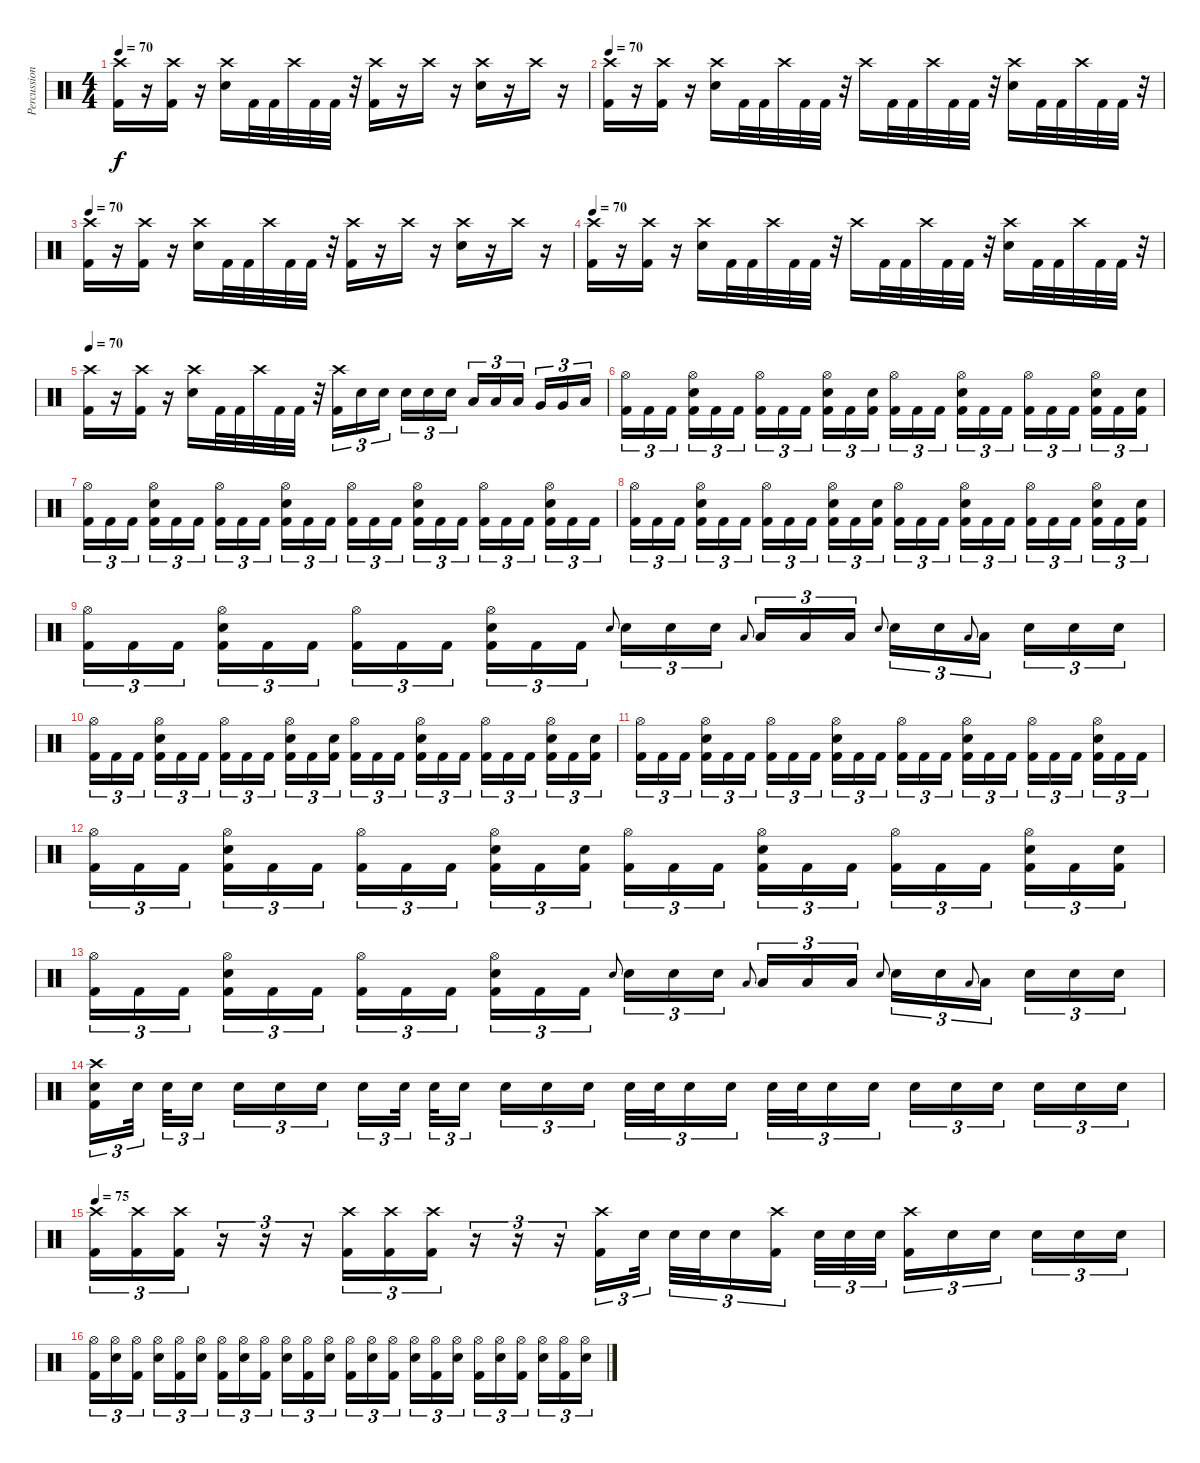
\track ("Percussion" "Percussion") {instrument percussion}
\staff {score}
\articulation defaults
\ts (4 4)
\tempo 70
\clef neutral
\ks c
("Crash high (hit)" "Kick (hit) 2").16{dy f} r.16 ("Crash high (hit)" "Kick (hit) 2").16 r.16 ("Crash high (hit)" "Electric Snare (hit)").16 "Kick (hit) 2".32 "Kick (hit) 2".32 "Crash high (hit)".32 "Kick (hit) 2".32 "Kick (hit) 2".32 r.32 ("Crash high (hit)" "Kick (hit) 2").16 r.16 "Crash high (hit)".16 r.16 ("Crash high (hit)" "Electric Snare (hit)").16 r.16 "Crash high (hit)".16 r.16 |
\tempo 70
("Crash high (hit)" "Kick (hit) 2").16 r.16 ("Crash high (hit)" "Kick (hit) 2").16 r.16 ("Crash high (hit)" "Electric Snare (hit)").16 "Kick (hit) 2".32 "Kick (hit) 2".32 "Crash high (hit)".32 "Kick (hit) 2".32 "Kick (hit) 2".32 r.32 "Crash high (hit)".16 "Kick (hit) 2".32 "Kick (hit) 2".32 "Crash high (hit)".32 "Kick (hit) 2".32 "Kick (hit) 2".32 r.32 ("Crash high (hit)" "Electric Snare (hit)").16 "Kick (hit) 2".32 "Kick (hit) 2".32 "Crash high (hit)".32 "Kick (hit) 2".32 "Kick (hit) 2".32 r.32 |
\tempo 70
("Crash high (hit)" "Kick (hit) 2").16 r.16 ("Crash high (hit)" "Kick (hit) 2").16 r.16 ("Crash high (hit)" "Electric Snare (hit)").16 "Kick (hit) 2".32 "Kick (hit) 2".32 "Crash high (hit)".32 "Kick (hit) 2".32 "Kick (hit) 2".32 r.32 ("Crash high (hit)" "Kick (hit) 2").16 r.16 "Crash high (hit)".16 r.16 ("Crash high (hit)" "Electric Snare (hit)").16 r.16 "Crash high (hit)".16 r.16 |
\tempo 70
("Crash high (hit)" "Kick (hit) 2").16 r.16 ("Crash high (hit)" "Kick (hit) 2").16 r.16 ("Crash high (hit)" "Electric Snare (hit)").16 "Kick (hit) 2".32 "Kick (hit) 2".32 "Crash high (hit)".32 "Kick (hit) 2".32 "Kick (hit) 2".32 r.32 "Crash high (hit)".16 "Kick (hit) 2".32 "Kick (hit) 2".32 "Crash high (hit)".32 "Kick (hit) 2".32 "Kick (hit) 2".32 r.32 ("Crash high (hit)" "Electric Snare (hit)").16 "Kick (hit) 2".32 "Kick (hit) 2".32 "Crash high (hit)".32 "Kick (hit) 2".32 "Kick (hit) 2".32 r.32 |
\tempo 70
("Crash high (hit)" "Kick (hit) 2").16 r.16 ("Crash high (hit)" "Kick (hit) 2").16 r.16 ("Crash high (hit)" "Electric Snare (hit)").16 "Kick (hit) 2".32 "Kick (hit) 2".32 "Crash high (hit)".32 "Kick (hit) 2".32 "Kick (hit) 2".32 r.32 ("Crash high (hit)" "Kick (hit) 2").16{tu (3 2)} "Electric Snare (hit)".16{tu (3 2)} "Electric Snare (hit)".16{tu (3 2) beam splitsecondary} "Electric Snare (hit)".16{tu (3 2)} "Electric Snare (hit)".16{tu (3 2)} "Electric Snare (hit)".16{tu (3 2)} "Low Tom (hit)".16{tu (3 2)} "Low Tom (hit)".16{tu (3 2)} "Low Tom (hit)".16{tu (3 2) beam splitsecondary} "Very Low Tom (hit)".16{tu (3 2)} "Very Low Tom (hit)".16{tu (3 2)} "Low Floor Tom (hit)".16{tu (3 2)} |
("Hi-Hat (open)" "Kick (hit) 2").16{tu (3 2)} "Kick (hit) 2".16{tu (3 2)} "Kick (hit) 2".16{tu (3 2) beam splitsecondary} ("Hi-Hat (open)" "Electric Snare (hit)" "Kick (hit) 2").16{tu (3 2)} "Kick (hit) 2".16{tu (3 2)} "Kick (hit) 2".16{tu (3 2)} ("Hi-Hat (open)" "Kick (hit) 2").16{tu (3 2)} "Kick (hit) 2".16{tu (3 2)} "Kick (hit) 2".16{tu (3 2) beam splitsecondary} ("Hi-Hat (open)" "Electric Snare (hit)" "Kick (hit) 2").16{tu (3 2)} "Kick (hit) 2".16{tu (3 2)} ("Electric Snare (hit)" "Kick (hit) 2").16{tu (3 2)} ("Hi-Hat (open)" "Kick (hit) 2").16{tu (3 2)} "Kick (hit) 2".16{tu (3 2)} "Kick (hit) 2".16{tu (3 2) beam splitsecondary} ("Hi-Hat (open)" "Electric Snare (hit)" "Kick (hit) 2").16{tu (3 2)} "Kick (hit) 2".16{tu (3 2)} "Kick (hit) 2".16{tu (3 2)} ("Hi-Hat (open)" "Kick (hit) 2").16{tu (3 2)} "Kick (hit) 2".16{tu (3 2)} "Kick (hit) 2".16{tu (3 2) beam splitsecondary} ("Hi-Hat (open)" "Electric Snare (hit)" "Kick (hit) 2").16{tu (3 2)} "Kick (hit) 2".16{tu (3 2)} ("Electric Snare (hit)" "Kick (hit) 2").16{tu (3 2)} |
("Hi-Hat (open)" "Kick (hit) 2").16{tu (3 2)} "Kick (hit) 2".16{tu (3 2)} "Kick (hit) 2".16{tu (3 2) beam splitsecondary} ("Hi-Hat (open)" "Electric Snare (hit)" "Kick (hit) 2").16{tu (3 2)} "Kick (hit) 2".16{tu (3 2)} "Kick (hit) 2".16{tu (3 2)} ("Hi-Hat (open)" "Kick (hit) 2").16{tu (3 2)} "Kick (hit) 2".16{tu (3 2)} "Kick (hit) 2".16{tu (3 2) beam splitsecondary} ("Hi-Hat (open)" "Electric Snare (hit)" "Kick (hit) 2").16{tu (3 2)} "Kick (hit) 2".16{tu (3 2)} "Kick (hit) 2".16{tu (3 2)} ("Hi-Hat (open)" "Kick (hit) 2").16{tu (3 2)} "Kick (hit) 2".16{tu (3 2)} "Kick (hit) 2".16{tu (3 2) beam splitsecondary} ("Hi-Hat (open)" "Electric Snare (hit)" "Kick (hit) 2").16{tu (3 2)} "Kick (hit) 2".16{tu (3 2)} "Kick (hit) 2".16{tu (3 2)} ("Hi-Hat (open)" "Kick (hit) 2").16{tu (3 2)} "Kick (hit) 2".16{tu (3 2)} "Kick (hit) 2".16{tu (3 2) beam splitsecondary} ("Hi-Hat (open)" "Electric Snare (hit)" "Kick (hit) 2").16{tu (3 2)} "Kick (hit) 2".16{tu (3 2)} "Kick (hit) 2".16{tu (3 2)} |
("Hi-Hat (open)" "Kick (hit) 2").16{tu (3 2)} "Kick (hit) 2".16{tu (3 2)} "Kick (hit) 2".16{tu (3 2) beam splitsecondary} ("Hi-Hat (open)" "Electric Snare (hit)" "Kick (hit) 2").16{tu (3 2)} "Kick (hit) 2".16{tu (3 2)} "Kick (hit) 2".16{tu (3 2)} ("Hi-Hat (open)" "Kick (hit) 2").16{tu (3 2)} "Kick (hit) 2".16{tu (3 2)} "Kick (hit) 2".16{tu (3 2) beam splitsecondary} ("Hi-Hat (open)" "Electric Snare (hit)" "Kick (hit) 2").16{tu (3 2)} "Kick (hit) 2".16{tu (3 2)} ("Electric Snare (hit)" "Kick (hit) 2").16{tu (3 2)} ("Hi-Hat (open)" "Kick (hit) 2").16{tu (3 2)} "Kick (hit) 2".16{tu (3 2)} "Kick (hit) 2".16{tu (3 2) beam splitsecondary} ("Hi-Hat (open)" "Electric Snare (hit)" "Kick (hit) 2").16{tu (3 2)} "Kick (hit) 2".16{tu (3 2)} "Kick (hit) 2".16{tu (3 2)} ("Hi-Hat (open)" "Kick (hit) 2").16{tu (3 2)} "Kick (hit) 2".16{tu (3 2)} "Kick (hit) 2".16{tu (3 2) beam splitsecondary} ("Hi-Hat (open)" "Electric Snare (hit)" "Kick (hit) 2").16{tu (3 2)} "Kick (hit) 2".16{tu (3 2)} ("Electric Snare (hit)" "Kick (hit) 2").16{tu (3 2)} |
("Hi-Hat (open)" "Kick (hit) 2").16{tu (3 2)} "Kick (hit) 2".16{tu (3 2)} "Kick (hit) 2".16{tu (3 2) beam splitsecondary} ("Hi-Hat (open)" "Electric Snare (hit)" "Kick (hit) 2").16{tu (3 2)} "Kick (hit) 2".16{tu (3 2)} "Kick (hit) 2".16{tu (3 2)} ("Hi-Hat (open)" "Kick (hit) 2").16{tu (3 2)} "Kick (hit) 2".16{tu (3 2)} "Kick (hit) 2".16{tu (3 2) beam splitsecondary} ("Hi-Hat (open)" "Electric Snare (hit)" "Kick (hit) 2").16{tu (3 2)} "Kick (hit) 2".16{tu (3 2)} "Kick (hit) 2".16{tu (3 2)} "Electric Snare (hit)".8{gr onbeat} "Electric Snare (hit)".16{tu (3 2)} "Electric Snare (hit)".16{tu (3 2)} "Electric Snare (hit)".16{tu (3 2)} "Low Tom (hit)".8{gr onbeat beam splitsecondary} "Low Tom (hit)".16{tu (3 2)} "Low Tom (hit)".16{tu (3 2)} "Low Tom (hit)".16{tu (3 2)} "Electric Snare (hit)".8{gr onbeat} "Electric Snare (hit)".16{tu (3 2)} "Electric Snare (hit)".16{tu (3 2)} "Low Tom (hit)".8{gr onbeat} "Low Tom (hit)".16{tu (3 2) beam splitsecondary} "Electric Snare (hit)".16{tu (3 2)} "Electric Snare (hit)".16{tu (3 2)} "Electric Snare (hit)".16{tu (3 2)} |
("Hi-Hat (open)" "Kick (hit) 2").16{tu (3 2)} "Kick (hit) 2".16{tu (3 2)} "Kick (hit) 2".16{tu (3 2) beam splitsecondary} ("Hi-Hat (open)" "Electric Snare (hit)" "Kick (hit) 2").16{tu (3 2)} "Kick (hit) 2".16{tu (3 2)} "Kick (hit) 2".16{tu (3 2)} ("Hi-Hat (open)" "Kick (hit) 2").16{tu (3 2)} "Kick (hit) 2".16{tu (3 2)} "Kick (hit) 2".16{tu (3 2) beam splitsecondary} ("Hi-Hat (open)" "Electric Snare (hit)" "Kick (hit) 2").16{tu (3 2)} "Kick (hit) 2".16{tu (3 2)} ("Electric Snare (hit)" "Kick (hit) 2").16{tu (3 2)} ("Hi-Hat (open)" "Kick (hit) 2").16{tu (3 2)} "Kick (hit) 2".16{tu (3 2)} "Kick (hit) 2".16{tu (3 2) beam splitsecondary} ("Hi-Hat (open)" "Electric Snare (hit)" "Kick (hit) 2").16{tu (3 2)} "Kick (hit) 2".16{tu (3 2)} "Kick (hit) 2".16{tu (3 2)} ("Hi-Hat (open)" "Kick (hit) 2").16{tu (3 2)} "Kick (hit) 2".16{tu (3 2)} "Kick (hit) 2".16{tu (3 2) beam splitsecondary} ("Hi-Hat (open)" "Electric Snare (hit)" "Kick (hit) 2").16{tu (3 2)} "Kick (hit) 2".16{tu (3 2)} ("Electric Snare (hit)" "Kick (hit) 2").16{tu (3 2)} |
("Hi-Hat (open)" "Kick (hit) 2").16{tu (3 2)} "Kick (hit) 2".16{tu (3 2)} "Kick (hit) 2".16{tu (3 2) beam splitsecondary} ("Hi-Hat (open)" "Electric Snare (hit)" "Kick (hit) 2").16{tu (3 2)} "Kick (hit) 2".16{tu (3 2)} "Kick (hit) 2".16{tu (3 2)} ("Hi-Hat (open)" "Kick (hit) 2").16{tu (3 2)} "Kick (hit) 2".16{tu (3 2)} "Kick (hit) 2".16{tu (3 2) beam splitsecondary} ("Hi-Hat (open)" "Electric Snare (hit)" "Kick (hit) 2").16{tu (3 2)} "Kick (hit) 2".16{tu (3 2)} "Kick (hit) 2".16{tu (3 2)} ("Hi-Hat (open)" "Kick (hit) 2").16{tu (3 2)} "Kick (hit) 2".16{tu (3 2)} "Kick (hit) 2".16{tu (3 2) beam splitsecondary} ("Hi-Hat (open)" "Electric Snare (hit)" "Kick (hit) 2").16{tu (3 2)} "Kick (hit) 2".16{tu (3 2)} "Kick (hit) 2".16{tu (3 2)} ("Hi-Hat (open)" "Kick (hit) 2").16{tu (3 2)} "Kick (hit) 2".16{tu (3 2)} "Kick (hit) 2".16{tu (3 2) beam splitsecondary} ("Hi-Hat (open)" "Electric Snare (hit)" "Kick (hit) 2").16{tu (3 2)} "Kick (hit) 2".16{tu (3 2)} "Kick (hit) 2".16{tu (3 2)} |
("Hi-Hat (open)" "Kick (hit) 2").16{tu (3 2)} "Kick (hit) 2".16{tu (3 2)} "Kick (hit) 2".16{tu (3 2) beam splitsecondary} ("Hi-Hat (open)" "Electric Snare (hit)" "Kick (hit) 2").16{tu (3 2)} "Kick (hit) 2".16{tu (3 2)} "Kick (hit) 2".16{tu (3 2)} ("Hi-Hat (open)" "Kick (hit) 2").16{tu (3 2)} "Kick (hit) 2".16{tu (3 2)} "Kick (hit) 2".16{tu (3 2) beam splitsecondary} ("Hi-Hat (open)" "Electric Snare (hit)" "Kick (hit) 2").16{tu (3 2)} "Kick (hit) 2".16{tu (3 2)} ("Electric Snare (hit)" "Kick (hit) 2").16{tu (3 2)} ("Hi-Hat (open)" "Kick (hit) 2").16{tu (3 2)} "Kick (hit) 2".16{tu (3 2)} "Kick (hit) 2".16{tu (3 2) beam splitsecondary} ("Hi-Hat (open)" "Electric Snare (hit)" "Kick (hit) 2").16{tu (3 2)} "Kick (hit) 2".16{tu (3 2)} "Kick (hit) 2".16{tu (3 2)} ("Hi-Hat (open)" "Kick (hit) 2").16{tu (3 2)} "Kick (hit) 2".16{tu (3 2)} "Kick (hit) 2".16{tu (3 2) beam splitsecondary} ("Hi-Hat (open)" "Electric Snare (hit)" "Kick (hit) 2").16{tu (3 2)} "Kick (hit) 2".16{tu (3 2)} ("Electric Snare (hit)" "Kick (hit) 2").16{tu (3 2)} |
("Hi-Hat (open)" "Kick (hit) 2").16{tu (3 2)} "Kick (hit) 2".16{tu (3 2)} "Kick (hit) 2".16{tu (3 2) beam splitsecondary} ("Hi-Hat (open)" "Electric Snare (hit)" "Kick (hit) 2").16{tu (3 2)} "Kick (hit) 2".16{tu (3 2)} "Kick (hit) 2".16{tu (3 2)} ("Hi-Hat (open)" "Kick (hit) 2").16{tu (3 2)} "Kick (hit) 2".16{tu (3 2)} "Kick (hit) 2".16{tu (3 2) beam splitsecondary} ("Hi-Hat (open)" "Electric Snare (hit)" "Kick (hit) 2").16{tu (3 2)} "Kick (hit) 2".16{tu (3 2)} "Kick (hit) 2".16{tu (3 2)} "Electric Snare (hit)".8{gr onbeat} "Electric Snare (hit)".16{tu (3 2)} "Electric Snare (hit)".16{tu (3 2)} "Electric Snare (hit)".16{tu (3 2)} "Low Tom (hit)".8{gr onbeat beam splitsecondary} "Low Tom (hit)".16{tu (3 2)} "Low Tom (hit)".16{tu (3 2)} "Low Tom (hit)".16{tu (3 2)} "Electric Snare (hit)".8{gr onbeat} "Electric Snare (hit)".16{tu (3 2)} "Electric Snare (hit)".16{tu (3 2)} "Low Tom (hit)".8{gr onbeat} "Low Tom (hit)".16{tu (3 2) beam splitsecondary} "Electric Snare (hit)".16{tu (3 2)} "Electric Snare (hit)".16{tu (3 2)} "Electric Snare (hit)".16{tu (3 2)} |
("Crash high (hit)" "Electric Snare (hit)" "Kick (hit) 2").16{tu (3 2)} "Electric Snare (hit)".32{tu (3 2) beam splitsecondary} "Electric Snare (hit)".32{tu (3 2)} "Electric Snare (hit)".16{tu (3 2) beam splitsecondary} "Electric Snare (hit)".16{tu (3 2)} "Electric Snare (hit)".16{tu (3 2)} "Electric Snare (hit)".16{tu (3 2)} "Electric Snare (hit)".16{tu (3 2)} "Electric Snare (hit)".32{tu (3 2) beam splitsecondary} "Electric Snare (hit)".32{tu (3 2)} "Electric Snare (hit)".16{tu (3 2) beam splitsecondary} "Electric Snare (hit)".16{tu (3 2)} "Electric Snare (hit)".16{tu (3 2)} "Electric Snare (hit)".16{tu (3 2)} "Electric Snare (hit)".32{tu (3 2)} "Electric Snare (hit)".32{tu (3 2)} "Electric Snare (hit)".16{tu (3 2)} "Electric Snare (hit)".16{tu (3 2) beam splitsecondary} "Electric Snare (hit)".32{tu (3 2)} "Electric Snare (hit)".32{tu (3 2)} "Electric Snare (hit)".16{tu (3 2)} "Electric Snare (hit)".16{tu (3 2)} "Electric Snare (hit)".16{tu (3 2)} "Electric Snare (hit)".16{tu (3 2)} "Electric Snare (hit)".16{tu (3 2) beam splitsecondary} "Electric Snare (hit)".16{tu (3 2)} "Electric Snare (hit)".16{tu (3 2)} "Electric Snare (hit)".16{tu (3 2)} |
\tempo 75
("Crash high (hit)" "Kick (hit) 2").16{tu (3 2)} ("Crash high (hit)" "Kick (hit) 2").16{tu (3 2)} ("Crash high (hit)" "Kick (hit) 2").16{tu (3 2)} r.16{tu (3 2)} r.16{tu (3 2)} r.16{tu (3 2)} ("Crash high (hit)" "Kick (hit) 2").16{tu (3 2)} ("Crash high (hit)" "Kick (hit) 2").16{tu (3 2)} ("Crash high (hit)" "Kick (hit) 2").16{tu (3 2)} r.16{tu (3 2)} r.16{tu (3 2)} r.16{tu (3 2)} ("Crash high (hit)" "Kick (hit) 2").16{tu (3 2)} "Electric Snare (hit)".32{tu (3 2) beam splitsecondary} "Electric Snare (hit)".32{tu (3 2)} "Electric Snare (hit)".32{tu (3 2)} "Electric Snare (hit)".16{tu (3 2)} ("Crash high (hit)" "Kick (hit) 2").16{tu (3 2) beam splitsecondary} "Electric Snare (hit)".32{tu (3 2)} "Electric Snare (hit)".32{tu (3 2)} "Electric Snare (hit)".32{tu (3 2)} ("Crash high (hit)" "Kick (hit) 2").16{tu (3 2)} "Electric Snare (hit)".16{tu (3 2)} "Electric Snare (hit)".16{tu (3 2) beam splitsecondary} "Electric Snare (hit)".16{tu (3 2)} "Electric Snare (hit)".16{tu (3 2)} "Electric Snare (hit)".16{tu (3 2)} |
("Hi-Hat (open)" "Kick (hit) 2").16{tu (3 2)} ("Hi-Hat (open)" "Electric Snare (hit)").16{tu (3 2)} ("Hi-Hat (open)" "Kick (hit) 2").16{tu (3 2) beam splitsecondary} ("Hi-Hat (open)" "Electric Snare (hit)").16{tu (3 2)} ("Hi-Hat (open)" "Kick (hit) 2").16{tu (3 2)} ("Hi-Hat (open)" "Electric Snare (hit)").16{tu (3 2)} ("Hi-Hat (open)" "Kick (hit) 2").16{tu (3 2)} ("Hi-Hat (open)" "Electric Snare (hit)").16{tu (3 2)} ("Hi-Hat (open)" "Kick (hit) 2").16{tu (3 2) beam splitsecondary} ("Hi-Hat (open)" "Electric Snare (hit)").16{tu (3 2)} ("Hi-Hat (open)" "Kick (hit) 2").16{tu (3 2)} ("Hi-Hat (open)" "Electric Snare (hit)").16{tu (3 2)} ("Hi-Hat (open)" "Kick (hit) 2").16{tu (3 2)} ("Hi-Hat (open)" "Electric Snare (hit)").16{tu (3 2)} ("Hi-Hat (open)" "Kick (hit) 2").16{tu (3 2) beam splitsecondary} ("Hi-Hat (open)" "Electric Snare (hit)").16{tu (3 2)} ("Hi-Hat (open)" "Kick (hit) 2").16{tu (3 2)} ("Hi-Hat (open)" "Electric Snare (hit)").16{tu (3 2)} ("Hi-Hat (open)" "Kick (hit) 2").16{tu (3 2)} ("Hi-Hat (open)" "Electric Snare (hit)").16{tu (3 2)} ("Hi-Hat (open)" "Kick (hit) 2").16{tu (3 2) beam splitsecondary} ("Hi-Hat (open)" "Electric Snare (hit)").16{tu (3 2)} ("Hi-Hat (open)" "Kick (hit) 2").16{tu (3 2)} ("Hi-Hat (open)" "Electric Snare (hit)").16{tu (3 2)}
